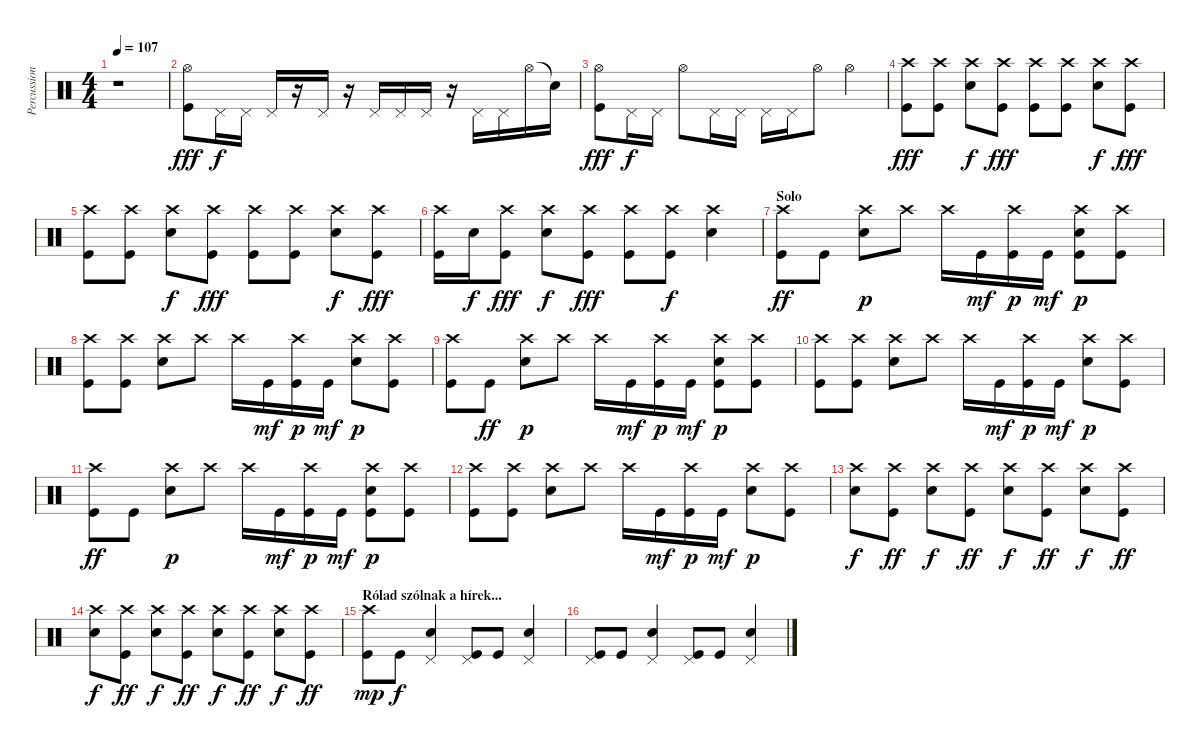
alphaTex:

\track ("Percussion" "Percussion") {instrument percussion}
\staff {score}
\articulation defaults
\ts (4 4)
\tempo 107
\clef neutral
\ks c
r.1{dy mp} |
("Kick (hit)" "Hi-Hat (open)").8{dy fff} "Pedal Hi-Hat (hit)".16{dy f} "Pedal Hi-Hat (hit)".16 "Pedal Hi-Hat (hit)".16 r.16 "Pedal Hi-Hat (hit)".16 r.16 "Pedal Hi-Hat (hit)".16 "Pedal Hi-Hat (hit)".16 "Pedal Hi-Hat (hit)".16 r.16 "Pedal Hi-Hat (hit)".16 "Pedal Hi-Hat (hit)".16 "Hi-Hat (open)".16 "Snare (hit)"{t}.16 |
("Kick (hit)" "Hi-Hat (open)").8{dy fff} "Pedal Hi-Hat (hit)".16{dy f} "Pedal Hi-Hat (hit)".16 "Hi-Hat (open)".8 "Pedal Hi-Hat (hit)".16 "Pedal Hi-Hat (hit)".16 "Pedal Hi-Hat (hit)".16 "Pedal Hi-Hat (hit)".16 "Hi-Hat (open)".8 "Hi-Hat (open)".4 |
("Kick (hit)" "Crash high (hit)").8{dy fff} ("Kick (hit)" "Crash high (hit)").8 ("Electric Snare (hit)" "Crash high (hit)").8{dy f} ("Kick (hit)" "Crash high (hit)").8{dy fff} ("Kick (hit)" "Crash high (hit)").8 ("Kick (hit)" "Crash high (hit)").8 ("Electric Snare (hit)" "Crash high (hit)").8{dy f} ("Kick (hit)" "Crash high (hit)").8{dy fff} |
("Kick (hit)" "Crash high (hit)").8 ("Kick (hit)" "Crash high (hit)").8 ("Electric Snare (hit)" "Crash high (hit)").8{dy f} ("Kick (hit)" "Crash high (hit)").8{dy fff} ("Kick (hit)" "Crash high (hit)").8 ("Kick (hit)" "Crash high (hit)").8 ("Electric Snare (hit)" "Crash high (hit)").8{dy f} ("Kick (hit)" "Crash high (hit)").8{dy fff} |
("Kick (hit)" "Crash high (hit)").16 "Electric Snare (hit)".16{dy f} ("Kick (hit)" "Crash high (hit)").8{dy fff} ("Electric Snare (hit)" "Crash high (hit)").8{dy f} ("Kick (hit)" "Crash high (hit)").8{dy fff} ("Kick (hit)" "Crash high (hit)").8 ("Kick (hit)" "Crash high (hit)").8{dy f} ("Electric Snare (hit)" "Crash high (hit)").4 |
\section ("" "Solo")
("Kick (hit)" "Crash high (hit)").8{dy ff} "Kick (hit)".8 ("Electric Snare (hit)" "Crash high (hit)").8{dy p} "Crash high (hit)".8 "Crash high (hit)".16 "Kick (hit)".16{dy mf} ("Kick (hit)" "Crash high (hit)").16{dy p} "Kick (hit)".16{dy mf} ("Electric Snare (hit)" "Kick (hit)" "Crash high (hit)").8{dy p} ("Kick (hit)" "Crash high (hit)").8 |
("Kick (hit)" "Crash high (hit)").8 ("Kick (hit)" "Crash high (hit)").8 ("Electric Snare (hit)" "Crash high (hit)").8 "Crash high (hit)".8 "Crash high (hit)".16 "Kick (hit)".16{dy mf} ("Kick (hit)" "Crash high (hit)").16{dy p} "Kick (hit)".16{dy mf} ("Electric Snare (hit)" "Crash high (hit)").8{dy p} ("Kick (hit)" "Crash high (hit)").8 |
("Kick (hit)" "Crash high (hit)").8 "Kick (hit)".8{dy ff} ("Electric Snare (hit)" "Crash high (hit)").8{dy p} "Crash high (hit)".8 "Crash high (hit)".16 "Kick (hit)".16{dy mf} ("Kick (hit)" "Crash high (hit)").16{dy p} "Kick (hit)".16{dy mf} ("Electric Snare (hit)" "Kick (hit)" "Crash high (hit)").8{dy p} ("Kick (hit)" "Crash high (hit)").8 |
("Kick (hit)" "Crash high (hit)").8 ("Kick (hit)" "Crash high (hit)").8 ("Electric Snare (hit)" "Crash high (hit)").8 "Crash high (hit)".8 "Crash high (hit)".16 "Kick (hit)".16{dy mf} ("Kick (hit)" "Crash high (hit)").16{dy p} "Kick (hit)".16{dy mf} ("Electric Snare (hit)" "Crash high (hit)").8{dy p} ("Kick (hit)" "Crash high (hit)").8 |
("Kick (hit)" "Crash high (hit)").8{dy ff} "Kick (hit)".8 ("Electric Snare (hit)" "Crash high (hit)").8{dy p} "Crash high (hit)".8 "Crash high (hit)".16 "Kick (hit)".16{dy mf} ("Kick (hit)" "Crash high (hit)").16{dy p} "Kick (hit)".16{dy mf} ("Electric Snare (hit)" "Kick (hit)" "Crash high (hit)").8{dy p} ("Kick (hit)" "Crash high (hit)").8 |
("Kick (hit)" "Crash high (hit)").8 ("Kick (hit)" "Crash high (hit)").8 ("Electric Snare (hit)" "Crash high (hit)").8 "Crash high (hit)".8 "Crash high (hit)".16 "Kick (hit)".16{dy mf} ("Kick (hit)" "Crash high (hit)").16{dy p} "Kick (hit)".16{dy mf} ("Electric Snare (hit)" "Crash high (hit)").8{dy p} ("Kick (hit)" "Crash high (hit)").8 |
("Electric Snare (hit)" "Crash high (hit)").8{dy f} ("Kick (hit)" "Crash high (hit)").8{dy ff} ("Electric Snare (hit)" "Crash high (hit)").8{dy f} ("Kick (hit)" "Crash high (hit)").8{dy ff} ("Electric Snare (hit)" "Crash high (hit)").8{dy f} ("Kick (hit)" "Crash high (hit)").8{dy ff} ("Electric Snare (hit)" "Crash high (hit)").8{dy f} ("Kick (hit)" "Crash high (hit)").8{dy ff} |
("Electric Snare (hit)" "Crash high (hit)").8{dy f} ("Kick (hit)" "Crash high (hit)").8{dy ff} ("Electric Snare (hit)" "Crash high (hit)").8{dy f} ("Kick (hit)" "Crash high (hit)").8{dy ff} ("Electric Snare (hit)" "Crash high (hit)").8{dy f} ("Kick (hit)" "Crash high (hit)").8{dy ff} ("Electric Snare (hit)" "Crash high (hit)").8{dy f} ("Kick (hit)" "Crash high (hit)").8{dy ff} |
\section ("" "Rólad szólnak a hírek...")
("Kick (hit)" "Crash high (hit)").8{dy mp} "Kick (hit)".8{dy f} ("Electric Snare (hit)" "Pedal Hi-Hat (hit)").4 ("Kick (hit)" "Pedal Hi-Hat (hit)").8 "Kick (hit)".8 ("Electric Snare (hit)" "Pedal Hi-Hat (hit)").4 |
("Kick (hit)" "Pedal Hi-Hat (hit)").8 "Kick (hit)".8 ("Electric Snare (hit)" "Pedal Hi-Hat (hit)").4 ("Kick (hit)" "Pedal Hi-Hat (hit)").8 "Kick (hit)".8 ("Electric Snare (hit)" "Pedal Hi-Hat (hit)").4
